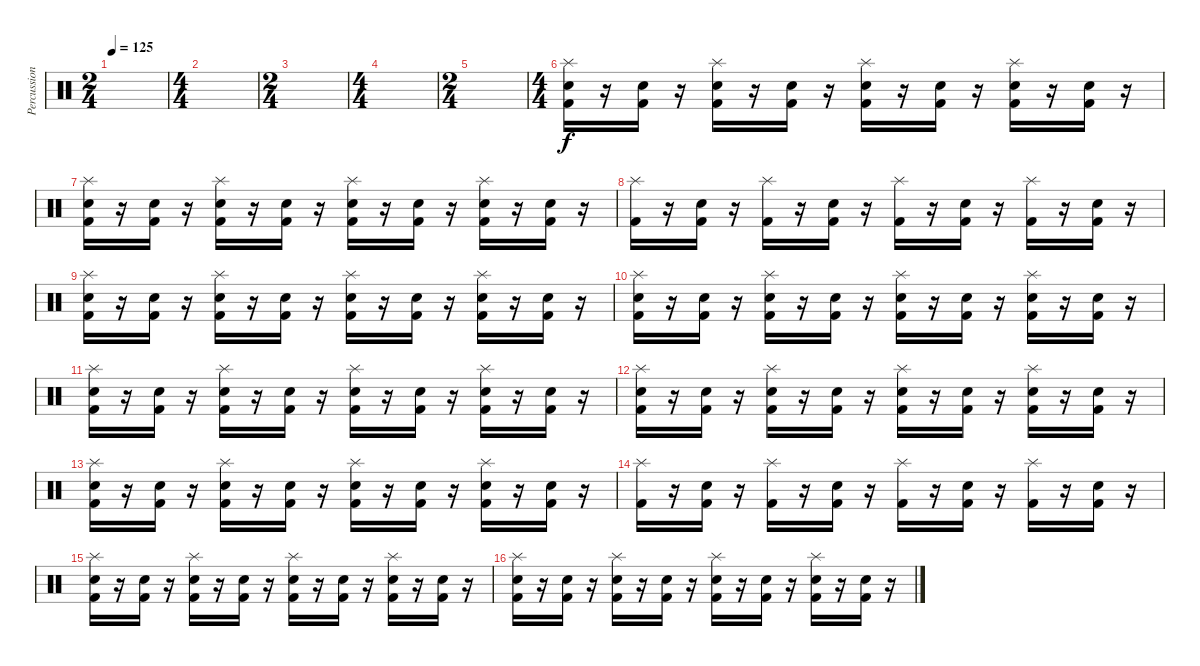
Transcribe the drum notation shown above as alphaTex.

\track ("Percussion" "Percussion") {instrument percussion}
\staff {score}
\articulation defaults
\ts (2 4)
\tempo 125
\clef neutral
\ks c
|
\ts (4 4)
|
\ts (2 4)
|
\ts (4 4)
|
\ts (2 4)
|
\ts (4 4)
("Splash (hit)" "Electric Snare (hit)" "Kick (hit) 2").16 r.16 ("Electric Snare (hit)" "Kick (hit) 2").16 r.16 ("Splash (hit)" "Electric Snare (hit)" "Kick (hit) 2").16 r.16 ("Electric Snare (hit)" "Kick (hit) 2").16 r.16 ("Splash (hit)" "Electric Snare (hit)" "Kick (hit) 2").16 r.16 ("Electric Snare (hit)" "Kick (hit) 2").16 r.16 ("Splash (hit)" "Electric Snare (hit)" "Kick (hit) 2").16 r.16 ("Electric Snare (hit)" "Kick (hit) 2").16 r.16 |
("Splash (hit)" "Electric Snare (hit)" "Kick (hit) 2").16 r.16 ("Electric Snare (hit)" "Kick (hit) 2").16 r.16 ("Splash (hit)" "Electric Snare (hit)" "Kick (hit) 2").16 r.16 ("Electric Snare (hit)" "Kick (hit) 2").16 r.16 ("Splash (hit)" "Electric Snare (hit)" "Kick (hit) 2").16 r.16 ("Electric Snare (hit)" "Kick (hit) 2").16 r.16 ("Splash (hit)" "Electric Snare (hit)" "Kick (hit) 2").16 r.16 ("Electric Snare (hit)" "Kick (hit) 2").16 r.16 |
("Splash (hit)" "Kick (hit) 2").16 r.16 ("Electric Snare (hit)" "Kick (hit) 2").16 r.16 ("Splash (hit)" "Kick (hit) 2").16 r.16 ("Electric Snare (hit)" "Kick (hit) 2").16 r.16 ("Splash (hit)" "Kick (hit) 2").16 r.16 ("Electric Snare (hit)" "Kick (hit) 2").16 r.16 ("Splash (hit)" "Kick (hit) 2").16 r.16 ("Electric Snare (hit)" "Kick (hit) 2").16 r.16 |
("Splash (hit)" "Electric Snare (hit)" "Kick (hit) 2").16 r.16 ("Electric Snare (hit)" "Kick (hit) 2").16 r.16 ("Splash (hit)" "Electric Snare (hit)" "Kick (hit) 2").16 r.16 ("Electric Snare (hit)" "Kick (hit) 2").16 r.16 ("Splash (hit)" "Electric Snare (hit)" "Kick (hit) 2").16 r.16 ("Electric Snare (hit)" "Kick (hit) 2").16 r.16 ("Splash (hit)" "Electric Snare (hit)" "Kick (hit) 2").16 r.16 ("Electric Snare (hit)" "Kick (hit) 2").16 r.16 |
("Splash (hit)" "Electric Snare (hit)" "Kick (hit) 2").16 r.16 ("Electric Snare (hit)" "Kick (hit) 2").16 r.16 ("Splash (hit)" "Electric Snare (hit)" "Kick (hit) 2").16 r.16 ("Electric Snare (hit)" "Kick (hit) 2").16 r.16 ("Splash (hit)" "Electric Snare (hit)" "Kick (hit) 2").16 r.16 ("Electric Snare (hit)" "Kick (hit) 2").16 r.16 ("Splash (hit)" "Electric Snare (hit)" "Kick (hit) 2").16 r.16 ("Electric Snare (hit)" "Kick (hit) 2").16 r.16 |
("Splash (hit)" "Electric Snare (hit)" "Kick (hit) 2").16 r.16 ("Electric Snare (hit)" "Kick (hit) 2").16 r.16 ("Splash (hit)" "Electric Snare (hit)" "Kick (hit) 2").16 r.16 ("Electric Snare (hit)" "Kick (hit) 2").16 r.16 ("Splash (hit)" "Electric Snare (hit)" "Kick (hit) 2").16 r.16 ("Electric Snare (hit)" "Kick (hit) 2").16 r.16 ("Splash (hit)" "Electric Snare (hit)" "Kick (hit) 2").16 r.16 ("Electric Snare (hit)" "Kick (hit) 2").16 r.16 |
("Splash (hit)" "Electric Snare (hit)" "Kick (hit) 2").16 r.16 ("Electric Snare (hit)" "Kick (hit) 2").16 r.16 ("Splash (hit)" "Electric Snare (hit)" "Kick (hit) 2").16 r.16 ("Electric Snare (hit)" "Kick (hit) 2").16 r.16 ("Splash (hit)" "Electric Snare (hit)" "Kick (hit) 2").16 r.16 ("Electric Snare (hit)" "Kick (hit) 2").16 r.16 ("Splash (hit)" "Electric Snare (hit)" "Kick (hit) 2").16 r.16 ("Electric Snare (hit)" "Kick (hit) 2").16 r.16 |
("Splash (hit)" "Electric Snare (hit)" "Kick (hit) 2").16 r.16 ("Electric Snare (hit)" "Kick (hit) 2").16 r.16 ("Splash (hit)" "Electric Snare (hit)" "Kick (hit) 2").16 r.16 ("Electric Snare (hit)" "Kick (hit) 2").16 r.16 ("Splash (hit)" "Electric Snare (hit)" "Kick (hit) 2").16 r.16 ("Electric Snare (hit)" "Kick (hit) 2").16 r.16 ("Splash (hit)" "Electric Snare (hit)" "Kick (hit) 2").16 r.16 ("Electric Snare (hit)" "Kick (hit) 2").16 r.16 |
("Splash (hit)" "Kick (hit) 2").16 r.16 ("Electric Snare (hit)" "Kick (hit) 2").16 r.16 ("Splash (hit)" "Kick (hit) 2").16 r.16 ("Electric Snare (hit)" "Kick (hit) 2").16 r.16 ("Splash (hit)" "Kick (hit) 2").16 r.16 ("Electric Snare (hit)" "Kick (hit) 2").16 r.16 ("Splash (hit)" "Kick (hit) 2").16 r.16 ("Electric Snare (hit)" "Kick (hit) 2").16 r.16 |
("Splash (hit)" "Electric Snare (hit)" "Kick (hit) 2").16 r.16 ("Electric Snare (hit)" "Kick (hit) 2").16 r.16 ("Splash (hit)" "Electric Snare (hit)" "Kick (hit) 2").16 r.16 ("Electric Snare (hit)" "Kick (hit) 2").16 r.16 ("Splash (hit)" "Electric Snare (hit)" "Kick (hit) 2").16 r.16 ("Electric Snare (hit)" "Kick (hit) 2").16 r.16 ("Splash (hit)" "Electric Snare (hit)" "Kick (hit) 2").16 r.16 ("Electric Snare (hit)" "Kick (hit) 2").16 r.16 |
("Splash (hit)" "Electric Snare (hit)" "Kick (hit) 2").16 r.16 ("Electric Snare (hit)" "Kick (hit) 2").16 r.16 ("Splash (hit)" "Electric Snare (hit)" "Kick (hit) 2").16 r.16 ("Electric Snare (hit)" "Kick (hit) 2").16 r.16 ("Splash (hit)" "Electric Snare (hit)" "Kick (hit) 2").16 r.16 ("Electric Snare (hit)" "Kick (hit) 2").16 r.16 ("Splash (hit)" "Electric Snare (hit)" "Kick (hit) 2").16 r.16 ("Electric Snare (hit)" "Kick (hit) 2").16 r.16
